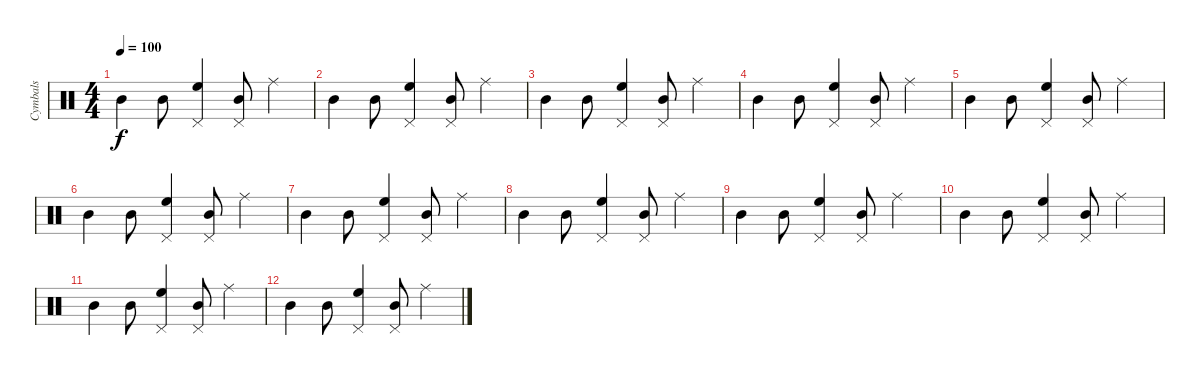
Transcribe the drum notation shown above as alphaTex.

\track ("Cymbals" "Cymbals") {instrument percussion}
\staff {score}
\articulation defaults
\ts (4 4)
\tempo 100
\clef neutral
\ks c "Mid Tom (hit)".4{dy f} "Mid Tom (hit)".8
("High Floor Tom (hit)" "Pedal Hi-Hat (hit)").4 ("Mid Tom (hit)" "Pedal Hi-Hat (hit)").8 "Ride (middle)".4 |
"Mid Tom (hit)".4 "Mid Tom (hit)".8 ("High Floor Tom (hit)" "Pedal Hi-Hat (hit)").4 ("Mid Tom (hit)" "Pedal Hi-Hat (hit)").8 "Ride (middle)".4 |
"Mid Tom (hit)".4 "Mid Tom (hit)".8 ("High Floor Tom (hit)" "Pedal Hi-Hat (hit)").4 ("Mid Tom (hit)" "Pedal Hi-Hat (hit)").8 "Ride (middle)".4 |
"Mid Tom (hit)".4 "Mid Tom (hit)".8 ("High Floor Tom (hit)" "Pedal Hi-Hat (hit)").4 ("Mid Tom (hit)" "Pedal Hi-Hat (hit)").8 "Ride (middle)".4 |
"Mid Tom (hit)".4 "Mid Tom (hit)".8 ("High Floor Tom (hit)" "Pedal Hi-Hat (hit)").4 ("Mid Tom (hit)" "Pedal Hi-Hat (hit)").8 "Ride (middle)".4 |
"Mid Tom (hit)".4 "Mid Tom (hit)".8 ("High Floor Tom (hit)" "Pedal Hi-Hat (hit)").4 ("Mid Tom (hit)" "Pedal Hi-Hat (hit)").8 "Ride (middle)".4 |
"Mid Tom (hit)".4 "Mid Tom (hit)".8 ("High Floor Tom (hit)" "Pedal Hi-Hat (hit)").4 ("Mid Tom (hit)" "Pedal Hi-Hat (hit)").8 "Ride (middle)".4 |
"Mid Tom (hit)".4 "Mid Tom (hit)".8 ("High Floor Tom (hit)" "Pedal Hi-Hat (hit)").4 ("Mid Tom (hit)" "Pedal Hi-Hat (hit)").8 "Ride (middle)".4 |
"Mid Tom (hit)".4 "Mid Tom (hit)".8 ("High Floor Tom (hit)" "Pedal Hi-Hat (hit)").4 ("Mid Tom (hit)" "Pedal Hi-Hat (hit)").8 "Ride (middle)".4 |
"Mid Tom (hit)".4 "Mid Tom (hit)".8 ("High Floor Tom (hit)" "Pedal Hi-Hat (hit)").4 ("Mid Tom (hit)" "Pedal Hi-Hat (hit)").8 "Ride (middle)".4 |
"Mid Tom (hit)".4 "Mid Tom (hit)".8 ("High Floor Tom (hit)" "Pedal Hi-Hat (hit)").4 ("Mid Tom (hit)" "Pedal Hi-Hat (hit)").8 "Ride (middle)".4 |
"Mid Tom (hit)".4 "Mid Tom (hit)".8 ("High Floor Tom (hit)" "Pedal Hi-Hat (hit)").4 ("Mid Tom (hit)" "Pedal Hi-Hat (hit)").8 "Ride (middle)".4
